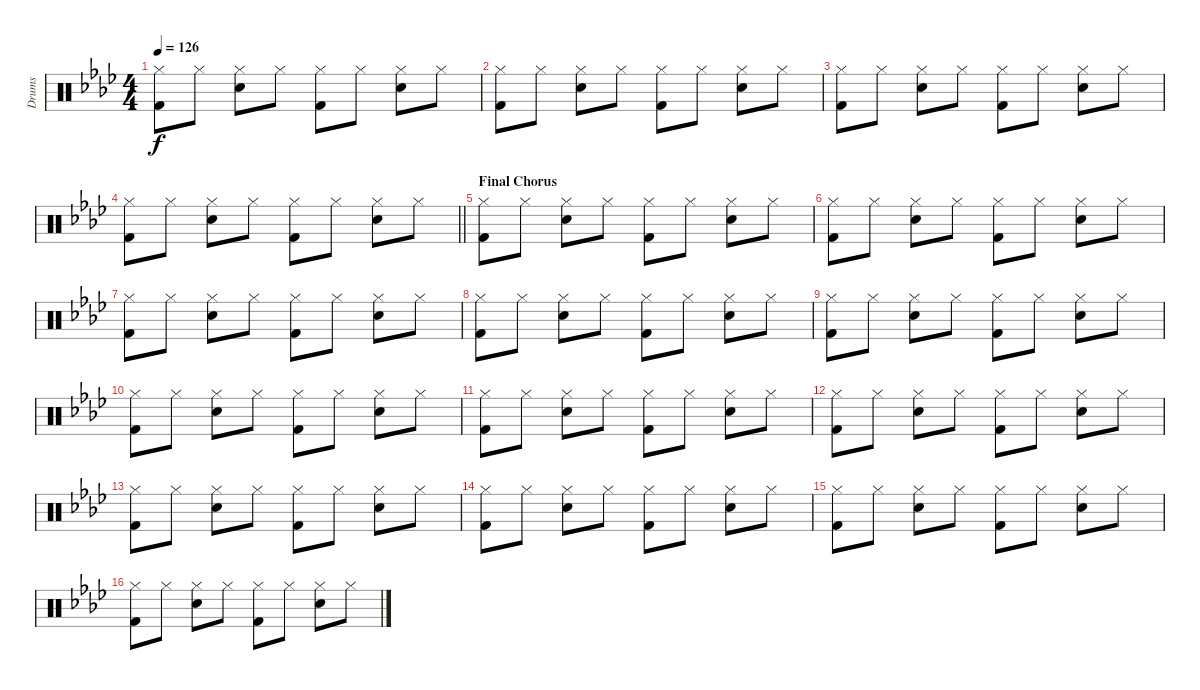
\track ("Drums" "Drums") {instrument percussion}
\staff {score}
\articulation defaults
\ts (4 4)
\tempo 126
\clef neutral
\ks ab
("Hi-Hat (closed)" "Kick (hit) 2").8{dy f} "Hi-Hat (closed)".8 ("Hi-Hat (closed)" "Electric Snare (hit)").8 "Hi-Hat (closed)".8 ("Hi-Hat (closed)" "Kick (hit) 2").8 "Hi-Hat (closed)".8 ("Hi-Hat (closed)" "Electric Snare (hit)").8 "Hi-Hat (closed)".8 |
("Hi-Hat (closed)" "Kick (hit) 2").8 "Hi-Hat (closed)".8 ("Hi-Hat (closed)" "Electric Snare (hit)").8 "Hi-Hat (closed)".8 ("Hi-Hat (closed)" "Kick (hit) 2").8 "Hi-Hat (closed)".8 ("Hi-Hat (closed)" "Electric Snare (hit)").8 "Hi-Hat (closed)".8 |
("Hi-Hat (closed)" "Kick (hit) 2").8 "Hi-Hat (closed)".8 ("Hi-Hat (closed)" "Electric Snare (hit)").8 "Hi-Hat (closed)".8 ("Hi-Hat (closed)" "Kick (hit) 2").8 "Hi-Hat (closed)".8 ("Hi-Hat (closed)" "Electric Snare (hit)").8 "Hi-Hat (closed)".8 |
\barLineRight lightlight
("Hi-Hat (closed)" "Kick (hit) 2").8 "Hi-Hat (closed)".8 ("Hi-Hat (closed)" "Electric Snare (hit)").8 "Hi-Hat (closed)".8 ("Hi-Hat (closed)" "Kick (hit) 2").8 "Hi-Hat (closed)".8 ("Hi-Hat (closed)" "Electric Snare (hit)").8 "Hi-Hat (closed)".8 |
\section ("" "Final Chorus")
("Hi-Hat (closed)" "Kick (hit) 2").8 "Hi-Hat (closed)".8 ("Hi-Hat (closed)" "Electric Snare (hit)").8 "Hi-Hat (closed)".8 ("Hi-Hat (closed)" "Kick (hit) 2").8 "Hi-Hat (closed)".8 ("Hi-Hat (closed)" "Electric Snare (hit)").8 "Hi-Hat (closed)".8 |
("Hi-Hat (closed)" "Kick (hit) 2").8 "Hi-Hat (closed)".8 ("Hi-Hat (closed)" "Electric Snare (hit)").8 "Hi-Hat (closed)".8 ("Hi-Hat (closed)" "Kick (hit) 2").8 "Hi-Hat (closed)".8 ("Hi-Hat (closed)" "Electric Snare (hit)").8 "Hi-Hat (closed)".8 |
("Hi-Hat (closed)" "Kick (hit) 2").8 "Hi-Hat (closed)".8 ("Hi-Hat (closed)" "Electric Snare (hit)").8 "Hi-Hat (closed)".8 ("Hi-Hat (closed)" "Kick (hit) 2").8 "Hi-Hat (closed)".8 ("Hi-Hat (closed)" "Electric Snare (hit)").8 "Hi-Hat (closed)".8 |
("Hi-Hat (closed)" "Kick (hit) 2").8 "Hi-Hat (closed)".8 ("Hi-Hat (closed)" "Electric Snare (hit)").8 "Hi-Hat (closed)".8 ("Hi-Hat (closed)" "Kick (hit) 2").8 "Hi-Hat (closed)".8 ("Hi-Hat (closed)" "Electric Snare (hit)").8 "Hi-Hat (closed)".8 |
("Hi-Hat (closed)" "Kick (hit) 2").8 "Hi-Hat (closed)".8 ("Hi-Hat (closed)" "Electric Snare (hit)").8 "Hi-Hat (closed)".8 ("Hi-Hat (closed)" "Kick (hit) 2").8 "Hi-Hat (closed)".8 ("Hi-Hat (closed)" "Electric Snare (hit)").8 "Hi-Hat (closed)".8 |
("Hi-Hat (closed)" "Kick (hit) 2").8 "Hi-Hat (closed)".8 ("Hi-Hat (closed)" "Electric Snare (hit)").8 "Hi-Hat (closed)".8 ("Hi-Hat (closed)" "Kick (hit) 2").8 "Hi-Hat (closed)".8 ("Hi-Hat (closed)" "Electric Snare (hit)").8 "Hi-Hat (closed)".8 |
("Hi-Hat (closed)" "Kick (hit) 2").8 "Hi-Hat (closed)".8 ("Hi-Hat (closed)" "Electric Snare (hit)").8 "Hi-Hat (closed)".8 ("Hi-Hat (closed)" "Kick (hit) 2").8 "Hi-Hat (closed)".8 ("Hi-Hat (closed)" "Electric Snare (hit)").8 "Hi-Hat (closed)".8 |
("Hi-Hat (closed)" "Kick (hit) 2").8 "Hi-Hat (closed)".8 ("Hi-Hat (closed)" "Electric Snare (hit)").8 "Hi-Hat (closed)".8 ("Hi-Hat (closed)" "Kick (hit) 2").8 "Hi-Hat (closed)".8 ("Hi-Hat (closed)" "Electric Snare (hit)").8 "Hi-Hat (closed)".8 |
("Hi-Hat (closed)" "Kick (hit) 2").8 "Hi-Hat (closed)".8 ("Hi-Hat (closed)" "Electric Snare (hit)").8 "Hi-Hat (closed)".8 ("Hi-Hat (closed)" "Kick (hit) 2").8 "Hi-Hat (closed)".8 ("Hi-Hat (closed)" "Electric Snare (hit)").8 "Hi-Hat (closed)".8 |
("Hi-Hat (closed)" "Kick (hit) 2").8 "Hi-Hat (closed)".8 ("Hi-Hat (closed)" "Electric Snare (hit)").8 "Hi-Hat (closed)".8 ("Hi-Hat (closed)" "Kick (hit) 2").8 "Hi-Hat (closed)".8 ("Hi-Hat (closed)" "Electric Snare (hit)").8 "Hi-Hat (closed)".8 |
("Hi-Hat (closed)" "Kick (hit) 2").8 "Hi-Hat (closed)".8 ("Hi-Hat (closed)" "Electric Snare (hit)").8 "Hi-Hat (closed)".8 ("Hi-Hat (closed)" "Kick (hit) 2").8 "Hi-Hat (closed)".8 ("Hi-Hat (closed)" "Electric Snare (hit)").8 "Hi-Hat (closed)".8 |
("Hi-Hat (closed)" "Kick (hit) 2").8 "Hi-Hat (closed)".8 ("Hi-Hat (closed)" "Electric Snare (hit)").8 "Hi-Hat (closed)".8 ("Hi-Hat (closed)" "Kick (hit) 2").8 "Hi-Hat (closed)".8 ("Hi-Hat (closed)" "Electric Snare (hit)").8 "Hi-Hat (closed)".8
